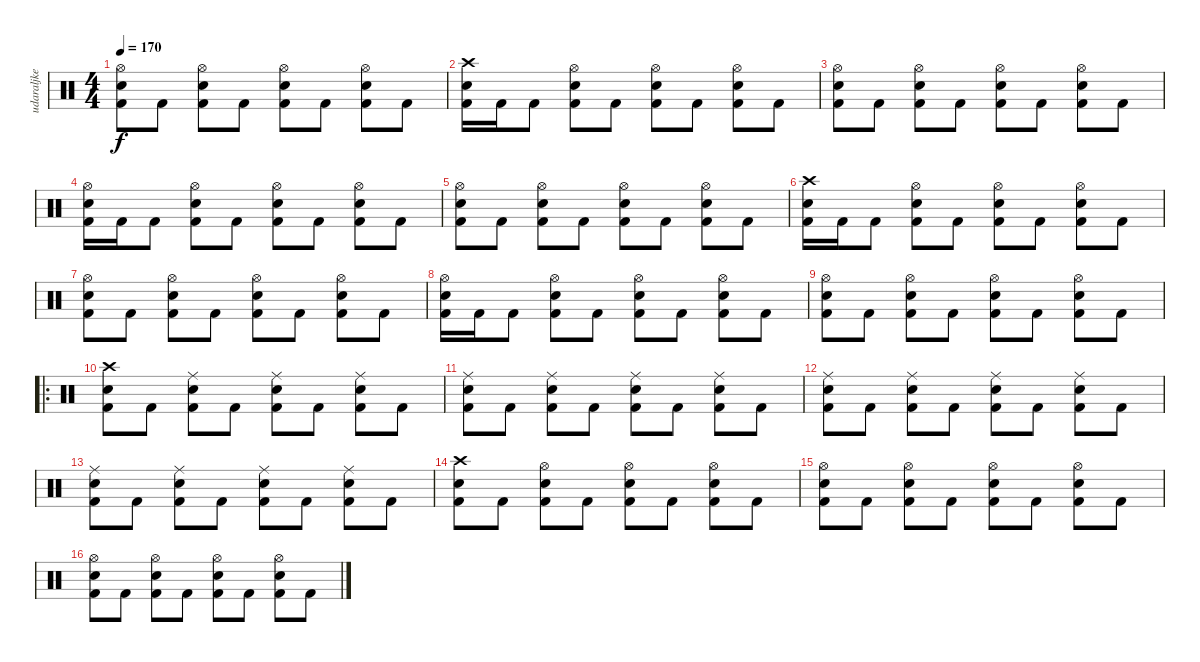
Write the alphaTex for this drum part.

\track ("udaraljke" "udaraljke") {instrument percussion}
\staff {score}
\articulation defaults
\ts (4 4)
\tempo 170
\clef neutral
\ks c
("Hi-Hat (open)" "Snare (hit) 2" "Kick (hit) 2").8{dy f} "Kick (hit) 2".8 ("Hi-Hat (open)" "Snare (hit) 2" "Kick (hit) 2").8 "Kick (hit) 2".8 ("Hi-Hat (open)" "Snare (hit) 2" "Kick (hit) 2").8 "Kick (hit) 2".8 ("Hi-Hat (open)" "Snare (hit) 2" "Kick (hit) 2").8 "Kick (hit) 2".8 |
("Crash high (hit)" "Snare (hit) 2" "Kick (hit) 2").16 "Kick (hit) 2".16 "Kick (hit) 2".8 ("Hi-Hat (open)" "Snare (hit) 2" "Kick (hit) 2").8 "Kick (hit) 2".8 ("Hi-Hat (open)" "Snare (hit) 2" "Kick (hit) 2").8 "Kick (hit) 2".8 ("Hi-Hat (open)" "Snare (hit) 2" "Kick (hit) 2").8 "Kick (hit) 2".8 |
("Hi-Hat (open)" "Snare (hit) 2" "Kick (hit) 2").8 "Kick (hit) 2".8 ("Hi-Hat (open)" "Snare (hit) 2" "Kick (hit) 2").8 "Kick (hit) 2".8 ("Hi-Hat (open)" "Snare (hit) 2" "Kick (hit) 2").8 "Kick (hit) 2".8 ("Hi-Hat (open)" "Snare (hit) 2" "Kick (hit) 2").8 "Kick (hit) 2".8 |
("Hi-Hat (open)" "Snare (hit) 2" "Kick (hit) 2").16 "Kick (hit) 2".16 "Kick (hit) 2".8 ("Hi-Hat (open)" "Snare (hit) 2" "Kick (hit) 2").8 "Kick (hit) 2".8 ("Hi-Hat (open)" "Snare (hit) 2" "Kick (hit) 2").8 "Kick (hit) 2".8 ("Hi-Hat (open)" "Snare (hit) 2" "Kick (hit) 2").8 "Kick (hit) 2".8 |
("Hi-Hat (open)" "Snare (hit) 2" "Kick (hit) 2").8 "Kick (hit) 2".8 ("Hi-Hat (open)" "Snare (hit) 2" "Kick (hit) 2").8 "Kick (hit) 2".8 ("Hi-Hat (open)" "Snare (hit) 2" "Kick (hit) 2").8 "Kick (hit) 2".8 ("Hi-Hat (open)" "Snare (hit) 2" "Kick (hit) 2").8 "Kick (hit) 2".8 |
("Crash high (hit)" "Snare (hit) 2" "Kick (hit) 2").16 "Kick (hit) 2".16 "Kick (hit) 2".8 ("Hi-Hat (open)" "Snare (hit) 2" "Kick (hit) 2").8 "Kick (hit) 2".8 ("Hi-Hat (open)" "Snare (hit) 2" "Kick (hit) 2").8 "Kick (hit) 2".8 ("Hi-Hat (open)" "Snare (hit) 2" "Kick (hit) 2").8 "Kick (hit) 2".8 |
("Hi-Hat (open)" "Snare (hit) 2" "Kick (hit) 2").8 "Kick (hit) 2".8 ("Hi-Hat (open)" "Snare (hit) 2" "Kick (hit) 2").8 "Kick (hit) 2".8 ("Hi-Hat (open)" "Snare (hit) 2" "Kick (hit) 2").8 "Kick (hit) 2".8 ("Hi-Hat (open)" "Snare (hit) 2" "Kick (hit) 2").8 "Kick (hit) 2".8 |
("Hi-Hat (open)" "Snare (hit) 2" "Kick (hit) 2").16 "Kick (hit) 2".16 "Kick (hit) 2".8 ("Hi-Hat (open)" "Snare (hit) 2" "Kick (hit) 2").8 "Kick (hit) 2".8 ("Hi-Hat (open)" "Snare (hit) 2" "Kick (hit) 2").8 "Kick (hit) 2".8 ("Hi-Hat (open)" "Snare (hit) 2" "Kick (hit) 2").8 "Kick (hit) 2".8 |
("Hi-Hat (open)" "Snare (hit) 2" "Kick (hit) 2").8 "Kick (hit) 2".8 ("Hi-Hat (open)" "Snare (hit) 2" "Kick (hit) 2").8 "Kick (hit) 2".8 ("Hi-Hat (open)" "Snare (hit) 2" "Kick (hit) 2").8 "Kick (hit) 2".8 ("Hi-Hat (open)" "Snare (hit) 2" "Kick (hit) 2").8 "Kick (hit) 2".8 |
\ro
("Crash high (hit)" "Snare (hit) 2" "Kick (hit) 2").8 "Kick (hit) 2".8 ("Ride (middle)" "Snare (hit) 2" "Kick (hit) 2").8 "Kick (hit) 2".8 ("Ride (middle)" "Snare (hit) 2" "Kick (hit) 2").8 "Kick (hit) 2".8 ("Ride (middle)" "Snare (hit) 2" "Kick (hit) 2").8 "Kick (hit) 2".8 |
("Ride (middle)" "Snare (hit) 2" "Kick (hit) 2").8 "Kick (hit) 2".8 ("Ride (middle)" "Snare (hit) 2" "Kick (hit) 2").8 "Kick (hit) 2".8 ("Ride (middle)" "Snare (hit) 2" "Kick (hit) 2").8 "Kick (hit) 2".8 ("Ride (middle)" "Snare (hit) 2" "Kick (hit) 2").8 "Kick (hit) 2".8 |
("Ride (middle)" "Snare (hit) 2" "Kick (hit) 2").8 "Kick (hit) 2".8 ("Ride (middle)" "Snare (hit) 2" "Kick (hit) 2").8 "Kick (hit) 2".8 ("Ride (middle)" "Snare (hit) 2" "Kick (hit) 2").8 "Kick (hit) 2".8 ("Ride (middle)" "Snare (hit) 2" "Kick (hit) 2").8 "Kick (hit) 2".8 |
("Ride (middle)" "Snare (hit) 2" "Kick (hit) 2").8 "Kick (hit) 2".8 ("Ride (middle)" "Snare (hit) 2" "Kick (hit) 2").8 "Kick (hit) 2".8 ("Ride (middle)" "Snare (hit) 2" "Kick (hit) 2").8 "Kick (hit) 2".8 ("Ride (middle)" "Snare (hit) 2" "Kick (hit) 2").8 "Kick (hit) 2".8 |
("Crash high (hit)" "Snare (hit) 2" "Kick (hit) 2").8 "Kick (hit) 2".8 ("Hi-Hat (open)" "Snare (hit) 2" "Kick (hit) 2").8 "Kick (hit) 2".8 ("Hi-Hat (open)" "Snare (hit) 2" "Kick (hit) 2").8 "Kick (hit) 2".8 ("Hi-Hat (open)" "Snare (hit) 2" "Kick (hit) 2").8 "Kick (hit) 2".8 |
("Hi-Hat (open)" "Snare (hit) 2" "Kick (hit) 2").8 "Kick (hit) 2".8 ("Hi-Hat (open)" "Snare (hit) 2" "Kick (hit) 2").8 "Kick (hit) 2".8 ("Hi-Hat (open)" "Snare (hit) 2" "Kick (hit) 2").8 "Kick (hit) 2".8 ("Hi-Hat (open)" "Snare (hit) 2" "Kick (hit) 2").8 "Kick (hit) 2".8 |
("Hi-Hat (open)" "Snare (hit) 2" "Kick (hit) 2").8 "Kick (hit) 2".8 ("Hi-Hat (open)" "Snare (hit) 2" "Kick (hit) 2").8 "Kick (hit) 2".8 ("Hi-Hat (open)" "Snare (hit) 2" "Kick (hit) 2").8 "Kick (hit) 2".8 ("Hi-Hat (open)" "Snare (hit) 2" "Kick (hit) 2").8 "Kick (hit) 2".8
